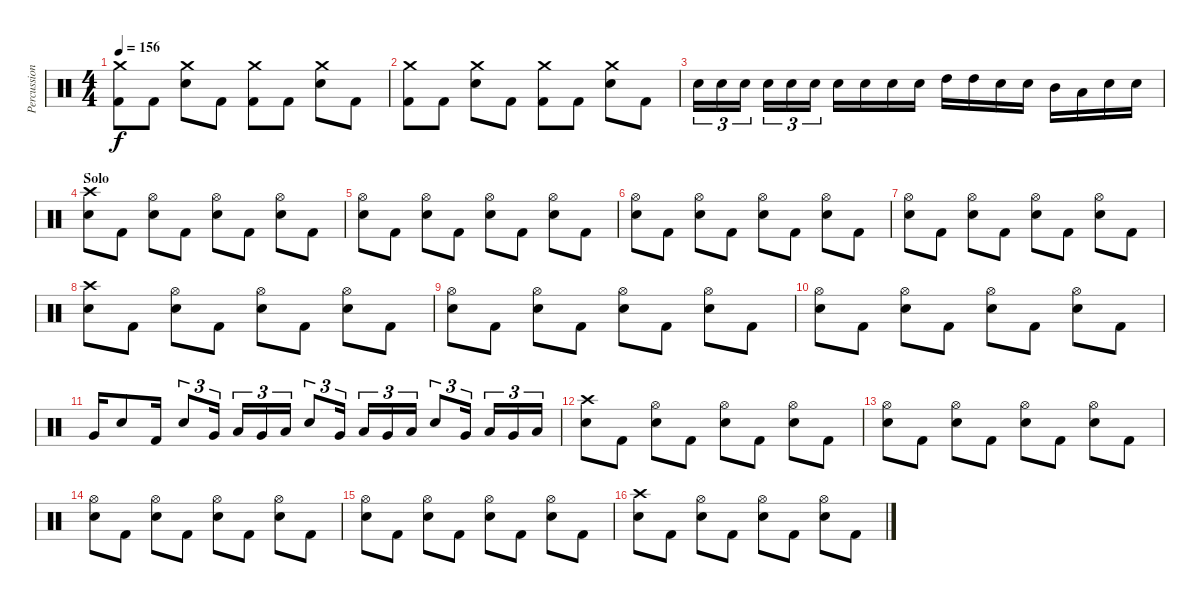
\track ("Percussion" "Percussion") {instrument percussion}
\staff {score}
\articulation defaults
\ts (4 4)
\tempo 156
\clef neutral
\ks c
("Crash medium (hit)" "Kick (hit) 2").8{dy f} "Kick (hit) 2".8 ("Crash medium (hit)" "Electric Snare (hit)").8 "Kick (hit) 2".8 ("Crash medium (hit)" "Kick (hit) 2").8 "Kick (hit) 2".8 ("Crash medium (hit)" "Electric Snare (hit)").8 "Kick (hit) 2".8 |
("Crash medium (hit)" "Kick (hit) 2").8 "Kick (hit) 2".8 ("Crash medium (hit)" "Electric Snare (hit)").8 "Kick (hit) 2".8 ("Crash medium (hit)" "Kick (hit) 2").8 "Kick (hit) 2".8 ("Crash medium (hit)" "Electric Snare (hit)").8 "Kick (hit) 2".8 |
"Electric Snare (hit)".16{tu (3 2)} "Electric Snare (hit)".16{tu (3 2)} "Electric Snare (hit)".16{tu (3 2)} "Electric Snare (hit)".16{tu (3 2)} "Electric Snare (hit)".16{tu (3 2)} "Electric Snare (hit)".16{tu (3 2)} "Electric Snare (hit)".16 "Electric Snare (hit)".16 "Electric Snare (hit)".16 "Electric Snare (hit)".16 "High Tom (hit)".16 "High Tom (hit)".16 "Electric Snare (hit)".16 "Electric Snare (hit)".16 "Mid Tom (hit)".16 "Low Tom (hit)".16 "Electric Snare (hit)".16 "Electric Snare (hit)".16 |
\section ("" "Solo")
("Crash high (hit)" "Electric Snare (hit)").8 "Kick (hit) 2".8 ("Hi-Hat (open)" "Electric Snare (hit)").8 "Kick (hit) 2".8 ("Hi-Hat (open)" "Electric Snare (hit)").8 "Kick (hit) 2".8 ("Hi-Hat (open)" "Electric Snare (hit)").8 "Kick (hit) 2".8 |
("Hi-Hat (open)" "Electric Snare (hit)").8 "Kick (hit) 2".8 ("Hi-Hat (open)" "Electric Snare (hit)").8 "Kick (hit) 2".8 ("Hi-Hat (open)" "Electric Snare (hit)").8 "Kick (hit) 2".8 ("Hi-Hat (open)" "Electric Snare (hit)").8 "Kick (hit) 2".8 |
("Hi-Hat (open)" "Electric Snare (hit)").8 "Kick (hit) 2".8 ("Hi-Hat (open)" "Electric Snare (hit)").8 "Kick (hit) 2".8 ("Hi-Hat (open)" "Electric Snare (hit)").8 "Kick (hit) 2".8 ("Hi-Hat (open)" "Electric Snare (hit)").8 "Kick (hit) 2".8 |
("Hi-Hat (open)" "Electric Snare (hit)").8 "Kick (hit) 2".8 ("Hi-Hat (open)" "Electric Snare (hit)").8 "Kick (hit) 2".8 ("Hi-Hat (open)" "Electric Snare (hit)").8 "Kick (hit) 2".8 ("Hi-Hat (open)" "Electric Snare (hit)").8 "Kick (hit) 2".8 |
("Crash high (hit)" "Electric Snare (hit)").8 "Kick (hit) 2".8 ("Hi-Hat (open)" "Electric Snare (hit)").8 "Kick (hit) 2".8 ("Hi-Hat (open)" "Electric Snare (hit)").8 "Kick (hit) 2".8 ("Hi-Hat (open)" "Electric Snare (hit)").8 "Kick (hit) 2".8 |
("Hi-Hat (open)" "Electric Snare (hit)").8 "Kick (hit) 2".8 ("Hi-Hat (open)" "Electric Snare (hit)").8 "Kick (hit) 2".8 ("Hi-Hat (open)" "Electric Snare (hit)").8 "Kick (hit) 2".8 ("Hi-Hat (open)" "Electric Snare (hit)").8 "Kick (hit) 2".8 |
("Hi-Hat (open)" "Electric Snare (hit)").8 "Kick (hit) 2".8 ("Hi-Hat (open)" "Electric Snare (hit)").8 "Kick (hit) 2".8 ("Hi-Hat (open)" "Electric Snare (hit)").8 "Kick (hit) 2".8 ("Hi-Hat (open)" "Electric Snare (hit)").8 "Kick (hit) 2".8 |
"Very Low Tom (hit)".16 "Electric Snare (hit)".8 "Kick (hit) 2".16 "Electric Snare (hit)".8{tu (3 2)} "Very Low Tom (hit)".16{tu (3 2)} "Low Floor Tom (hit)".16{tu (3 2)} "Very Low Tom (hit)".16{tu (3 2)} "Low Floor Tom (hit)".16{tu (3 2)} "Electric Snare (hit)".8{tu (3 2)} "Very Low Tom (hit)".16{tu (3 2)} "Low Floor Tom (hit)".16{tu (3 2)} "Very Low Tom (hit)".16{tu (3 2)} "Low Floor Tom (hit)".16{tu (3 2)} "Electric Snare (hit)".8{tu (3 2)} "Very Low Tom (hit)".16{tu (3 2)} "Low Floor Tom (hit)".16{tu (3 2)} "Very Low Tom (hit)".16{tu (3 2)} "Low Floor Tom (hit)".16{tu (3 2)} |
("Crash high (hit)" "Electric Snare (hit)").8 "Kick (hit) 2".8 ("Hi-Hat (open)" "Electric Snare (hit)").8 "Kick (hit) 2".8 ("Hi-Hat (open)" "Electric Snare (hit)").8 "Kick (hit) 2".8 ("Hi-Hat (open)" "Electric Snare (hit)").8 "Kick (hit) 2".8 |
("Hi-Hat (open)" "Electric Snare (hit)").8 "Kick (hit) 2".8 ("Hi-Hat (open)" "Electric Snare (hit)").8 "Kick (hit) 2".8 ("Hi-Hat (open)" "Electric Snare (hit)").8 "Kick (hit) 2".8 ("Hi-Hat (open)" "Electric Snare (hit)").8 "Kick (hit) 2".8 |
("Hi-Hat (open)" "Electric Snare (hit)").8 "Kick (hit) 2".8 ("Hi-Hat (open)" "Electric Snare (hit)").8 "Kick (hit) 2".8 ("Hi-Hat (open)" "Electric Snare (hit)").8 "Kick (hit) 2".8 ("Hi-Hat (open)" "Electric Snare (hit)").8 "Kick (hit) 2".8 |
("Hi-Hat (open)" "Electric Snare (hit)").8 "Kick (hit) 2".8 ("Hi-Hat (open)" "Electric Snare (hit)").8 "Kick (hit) 2".8 ("Hi-Hat (open)" "Electric Snare (hit)").8 "Kick (hit) 2".8 ("Hi-Hat (open)" "Electric Snare (hit)").8 "Kick (hit) 2".8 |
("Crash high (hit)" "Electric Snare (hit)").8 "Kick (hit) 2".8 ("Hi-Hat (open)" "Electric Snare (hit)").8 "Kick (hit) 2".8 ("Hi-Hat (open)" "Electric Snare (hit)").8 "Kick (hit) 2".8 ("Hi-Hat (open)" "Electric Snare (hit)").8 "Kick (hit) 2".8
